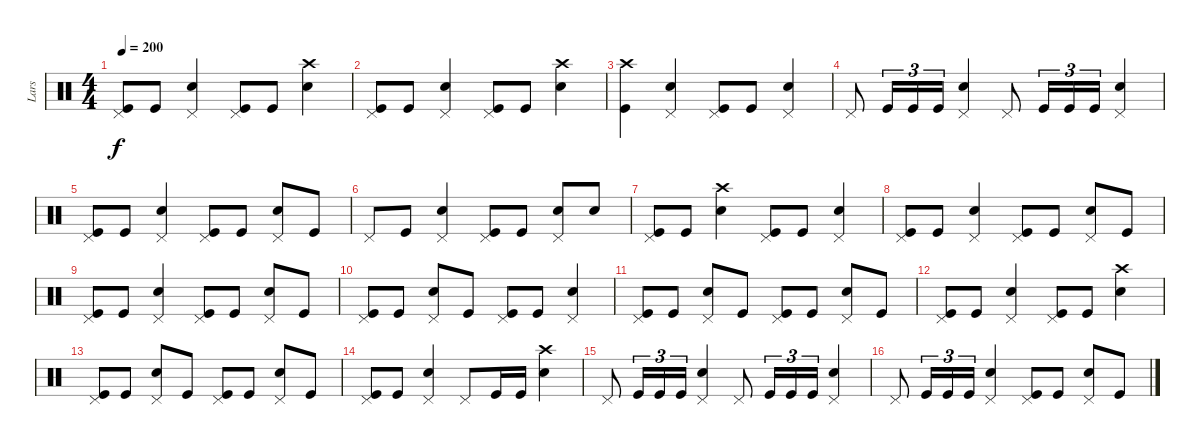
\track ("Lars" "Lars") {instrument percussion}
\staff {score}
\articulation defaults
\ts (4 4)
\tempo 200
\clef neutral
\ks c
("Pedal Hi-Hat (hit)" "Kick (hit)").8{dy f} "Kick (hit)".8 ("Pedal Hi-Hat (hit)" "Snare (hit) 2").4 ("Pedal Hi-Hat (hit)" "Kick (hit)").8 "Kick (hit)".8 ("Crash high (hit)" "Snare (hit) 2").4 |
("Pedal Hi-Hat (hit)" "Kick (hit)").8 "Kick (hit)".8 ("Pedal Hi-Hat (hit)" "Snare (hit) 2").4 ("Pedal Hi-Hat (hit)" "Kick (hit)").8 "Kick (hit)".8 ("Crash high (hit)" "Snare (hit) 2").4 |
("Crash high (hit)" "Kick (hit)").4 ("Pedal Hi-Hat (hit)" "Snare (hit) 2").4 ("Pedal Hi-Hat (hit)" "Kick (hit)").8 "Kick (hit)".8 ("Pedal Hi-Hat (hit)" "Snare (hit) 2").4 |
"Pedal Hi-Hat (hit)".8 "Kick (hit)".16{tu (3 2)} "Kick (hit)".16{tu (3 2)} "Kick (hit)".16{tu (3 2)} ("Pedal Hi-Hat (hit)" "Snare (hit) 2").4 "Pedal Hi-Hat (hit)".8 "Kick (hit)".16{tu (3 2)} "Kick (hit)".16{tu (3 2)} "Kick (hit)".16{tu (3 2)} ("Pedal Hi-Hat (hit)" "Snare (hit) 2").4 |
("Pedal Hi-Hat (hit)" "Kick (hit)").8 "Kick (hit)".8 ("Pedal Hi-Hat (hit)" "Snare (hit) 2").4 ("Pedal Hi-Hat (hit)" "Kick (hit)").8 "Kick (hit)".8 ("Pedal Hi-Hat (hit)" "Snare (hit) 2").8 "Kick (hit)".8 |
"Pedal Hi-Hat (hit)".8 "Kick (hit)".8 ("Pedal Hi-Hat (hit)" "Snare (hit) 2").4 ("Pedal Hi-Hat (hit)" "Kick (hit)").8 "Kick (hit)".8 ("Pedal Hi-Hat (hit)" "Snare (hit) 2").8 "Snare (hit) 2".8 |
("Pedal Hi-Hat (hit)" "Kick (hit)").8 "Kick (hit)".8 ("Crash high (hit)" "Snare (hit) 2").4 ("Pedal Hi-Hat (hit)" "Kick (hit)").8 "Kick (hit)".8 ("Pedal Hi-Hat (hit)" "Snare (hit) 2").4 |
("Pedal Hi-Hat (hit)" "Kick (hit)").8 "Kick (hit)".8 ("Pedal Hi-Hat (hit)" "Snare (hit) 2").4 ("Pedal Hi-Hat (hit)" "Kick (hit)").8 "Kick (hit)".8 ("Pedal Hi-Hat (hit)" "Snare (hit) 2").8 "Kick (hit)".8 |
("Pedal Hi-Hat (hit)" "Kick (hit)").8 "Kick (hit)".8 ("Pedal Hi-Hat (hit)" "Snare (hit) 2").4 ("Pedal Hi-Hat (hit)" "Kick (hit)").8 "Kick (hit)".8 ("Pedal Hi-Hat (hit)" "Snare (hit) 2").8 "Kick (hit)".8 |
("Pedal Hi-Hat (hit)" "Kick (hit)").8 "Kick (hit)".8 ("Pedal Hi-Hat (hit)" "Snare (hit) 2").8 "Kick (hit)".8 ("Pedal Hi-Hat (hit)" "Kick (hit)").8 "Kick (hit)".8 ("Pedal Hi-Hat (hit)" "Snare (hit) 2").4 |
("Pedal Hi-Hat (hit)" "Kick (hit)").8 "Kick (hit)".8 ("Pedal Hi-Hat (hit)" "Snare (hit) 2").8 "Kick (hit)".8 ("Pedal Hi-Hat (hit)" "Kick (hit)").8 "Kick (hit)".8 ("Pedal Hi-Hat (hit)" "Snare (hit) 2").8 "Kick (hit)".8 |
("Pedal Hi-Hat (hit)" "Kick (hit)").8 "Kick (hit)".8 ("Pedal Hi-Hat (hit)" "Snare (hit) 2").4 ("Pedal Hi-Hat (hit)" "Kick (hit)").8 "Kick (hit)".8 ("Crash high (hit)" "Snare (hit) 2").4 |
("Pedal Hi-Hat (hit)" "Kick (hit)").8 "Kick (hit)".8 ("Pedal Hi-Hat (hit)" "Snare (hit) 2").8 "Kick (hit)".8 ("Pedal Hi-Hat (hit)" "Kick (hit)").8 "Kick (hit)".8 ("Pedal Hi-Hat (hit)" "Snare (hit) 2").8 "Kick (hit)".8 |
("Pedal Hi-Hat (hit)" "Kick (hit)").8 "Kick (hit)".8 ("Pedal Hi-Hat (hit)" "Snare (hit) 2").4 "Pedal Hi-Hat (hit)".8 "Kick (hit)".16 "Kick (hit)".16 ("Crash high (hit)" "Snare (hit) 2").4 |
"Pedal Hi-Hat (hit)".8 "Kick (hit)".16{tu (3 2)} "Kick (hit)".16{tu (3 2)} "Kick (hit)".16{tu (3 2)} ("Pedal Hi-Hat (hit)" "Snare (hit) 2").4 "Pedal Hi-Hat (hit)".8 "Kick (hit)".16{tu (3 2)} "Kick (hit)".16{tu (3 2)} "Kick (hit)".16{tu (3 2)} ("Pedal Hi-Hat (hit)" "Snare (hit) 2").4 |
"Pedal Hi-Hat (hit)".8 "Kick (hit)".16{tu (3 2)} "Kick (hit)".16{tu (3 2)} "Kick (hit)".16{tu (3 2)} ("Pedal Hi-Hat (hit)" "Snare (hit) 2").4 ("Pedal Hi-Hat (hit)" "Kick (hit)").8 "Kick (hit)".8 ("Pedal Hi-Hat (hit)" "Snare (hit) 2").8 "Kick (hit)".8
